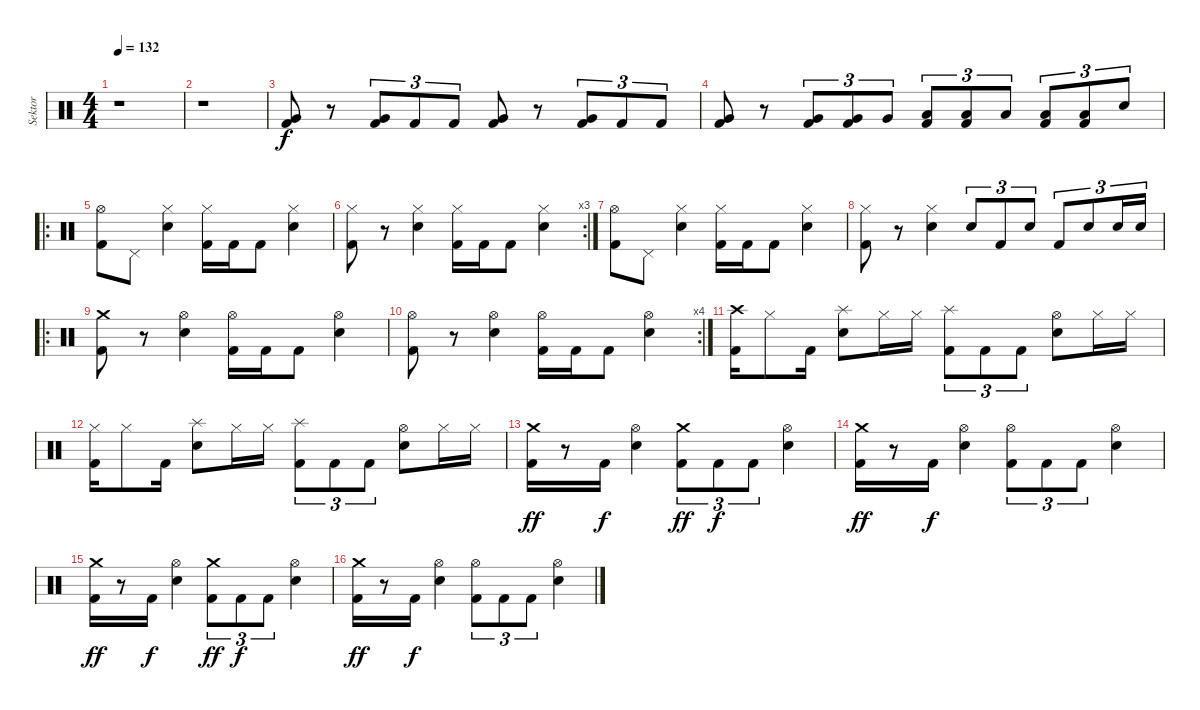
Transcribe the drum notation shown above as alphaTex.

\track ("Sektor" "Sektor") {instrument percussion}
\staff {score}
\articulation defaults
\ts (4 4)
\tempo 132
\clef neutral
\ks c
r.1{dy f} |
r.1 |
("Very Low Tom (hit)" "Kick (hit) 2").8 r.8 ("Very Low Tom (hit)" "Kick (hit) 2").8{tu (3 2)} "Kick (hit) 2".8{tu (3 2)} "Kick (hit) 2".8{tu (3 2)} ("Very Low Tom (hit)" "Kick (hit) 2").8 r.8 ("Very Low Tom (hit)" "Kick (hit) 2").8{tu (3 2)} "Kick (hit) 2".8{tu (3 2)} "Kick (hit) 2".8{tu (3 2)} |
("Very Low Tom (hit)" "Kick (hit) 2").8 r.8 ("Very Low Tom (hit)" "Kick (hit) 2").8{tu (3 2)} ("Very Low Tom (hit)" "Kick (hit) 2").8{tu (3 2)} "Very Low Tom (hit)".8{tu (3 2)} ("Low Floor Tom (hit)" "Kick (hit) 2").8{tu (3 2)} ("Low Floor Tom (hit)" "Kick (hit) 2").8{tu (3 2)} "Low Floor Tom (hit)".8{tu (3 2)} ("Low Floor Tom (hit)" "Kick (hit) 2").8{tu (3 2)} ("Low Floor Tom (hit)" "Kick (hit) 2").8{tu (3 2)} "Snare (hit) 2".8{tu (3 2)} |
\ro
("Hi-Hat (open)" "Kick (hit) 2").8 "Pedal Hi-Hat (hit)".8 ("Hi-Hat (closed)" "Snare (hit) 2").4 ("Hi-Hat (closed)" "Kick (hit) 2").16 "Kick (hit) 2".16 "Kick (hit) 2".8 ("Hi-Hat (closed)" "Snare (hit) 2").4 |
\rc 3
("Hi-Hat (closed)" "Kick (hit) 2").8 r.8 ("Hi-Hat (closed)" "Snare (hit) 2").4 ("Hi-Hat (closed)" "Kick (hit) 2").16 "Kick (hit) 2".16 "Kick (hit) 2".8 ("Hi-Hat (closed)" "Snare (hit) 2").4 |
("Hi-Hat (open)" "Kick (hit) 2").8 "Pedal Hi-Hat (hit)".8 ("Hi-Hat (closed)" "Snare (hit) 2").4 ("Hi-Hat (closed)" "Kick (hit) 2").16 "Kick (hit) 2".16 "Kick (hit) 2".8 ("Hi-Hat (closed)" "Snare (hit) 2").4 |
("Hi-Hat (closed)" "Kick (hit) 2").8 r.8 ("Hi-Hat (closed)" "Snare (hit) 2").4 "Snare (hit) 2".8{tu (3 2)} "Kick (hit) 2".8{tu (3 2)} "Snare (hit) 2".8{tu (3 2)} "Kick (hit) 2".8{tu (3 2)} "Snare (hit) 2".8{tu (3 2)} "Snare (hit) 2".16{tu (3 2)} "Snare (hit) 2".16{tu (3 2)} |
\ro
("Crash medium (hit)" "Kick (hit) 2").8 r.8 ("Hi-Hat (open)" "Snare (hit) 2").4 ("Hi-Hat (open)" "Kick (hit) 2").16 "Kick (hit) 2".16 "Kick (hit) 2".8 ("Hi-Hat (open)" "Snare (hit) 2").4 |
\rc 4
("Hi-Hat (open)" "Kick (hit) 2").8 r.8 ("Hi-Hat (open)" "Snare (hit) 2").4 ("Hi-Hat (open)" "Kick (hit) 2").16 "Kick (hit) 2".16 "Kick (hit) 2".8 ("Hi-Hat (open)" "Snare (hit) 2").4 |
("Crash high (hit)" "Kick (hit) 2").16 "Hi-Hat (closed)".8 "Kick (hit) 2".16 ("Splash (hit)" "Snare (hit) 2").8 "Hi-Hat (closed)".16 "Hi-Hat (closed)".16 ("Splash (hit)" "Kick (hit) 2").8{tu (3 2)} "Kick (hit) 2".8{tu (3 2)} "Kick (hit) 2".8{tu (3 2)} ("Hi-Hat (open)" "Snare (hit) 2").8 "Hi-Hat (closed)".16 "Hi-Hat (closed)".16 |
("Hi-Hat (closed)" "Kick (hit) 2").16 "Hi-Hat (closed)".8 "Kick (hit) 2".16 ("Splash (hit)" "Snare (hit) 2").8 "Hi-Hat (closed)".16 "Hi-Hat (closed)".16 ("Splash (hit)" "Kick (hit) 2").8{tu (3 2)} "Kick (hit) 2".8{tu (3 2)} "Kick (hit) 2".8{tu (3 2)} ("Hi-Hat (open)" "Snare (hit) 2").8 "Hi-Hat (closed)".16 "Hi-Hat (closed)".16 |
("Crash medium (hit)" "Kick (hit) 2").16{dy ff} r.8 "Kick (hit) 2".16{dy f} ("Hi-Hat (open)" "Snare (hit) 2").4 ("Crash medium (hit)" "Kick (hit) 2").8{tu (3 2) dy ff} "Kick (hit) 2".8{tu (3 2) dy f} "Kick (hit) 2".8{tu (3 2)} ("Hi-Hat (open)" "Snare (hit) 2").4 |
("Crash medium (hit)" "Kick (hit) 2").16{dy ff} r.8 "Kick (hit) 2".16{dy f} ("Hi-Hat (open)" "Snare (hit) 2").4 ("Hi-Hat (open)" "Kick (hit) 2").8{tu (3 2)} "Kick (hit) 2".8{tu (3 2)} "Kick (hit) 2".8{tu (3 2)} ("Hi-Hat (open)" "Snare (hit) 2").4 |
("Crash medium (hit)" "Kick (hit) 2").16{dy ff} r.8 "Kick (hit) 2".16{dy f} ("Hi-Hat (open)" "Snare (hit) 2").4 ("Crash medium (hit)" "Kick (hit) 2").8{tu (3 2) dy ff} "Kick (hit) 2".8{tu (3 2) dy f} "Kick (hit) 2".8{tu (3 2)} ("Hi-Hat (open)" "Snare (hit) 2").4 |
("Crash medium (hit)" "Kick (hit) 2").16{dy ff} r.8 "Kick (hit) 2".16{dy f} ("Hi-Hat (open)" "Snare (hit) 2").4 ("Hi-Hat (open)" "Kick (hit) 2").8{tu (3 2)} "Kick (hit) 2".8{tu (3 2)} "Kick (hit) 2".8{tu (3 2)} ("Hi-Hat (open)" "Snare (hit) 2").4
